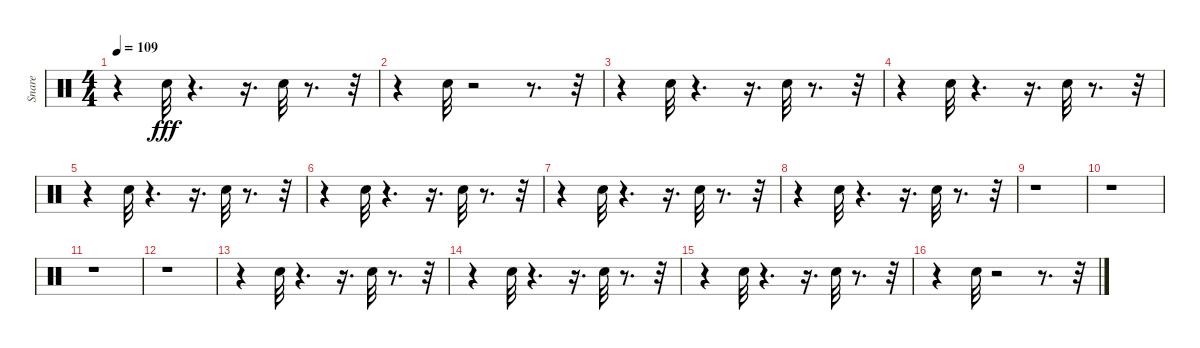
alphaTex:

\track ("Snare" "Snare") {instrument percussion}
\staff {score}
\articulation defaults
\ts (4 4)
\tempo 109
\clef neutral
\ks c
r.4{dy fff} "Snare (hit) 2".32 r.4{d} r.16{d} "Snare (hit) 2".32 r.8{d} r.32 |
r.4 "Snare (hit) 2".32 r.2 r.8{d} r.32 |
r.4 "Snare (hit) 2".32 r.4{d} r.16{d} "Snare (hit) 2".32 r.8{d} r.32 |
r.4 "Snare (hit) 2".32 r.4{d} r.16{d} "Snare (hit) 2".32 r.8{d} r.32 |
r.4 "Snare (hit) 2".32 r.4{d} r.16{d} "Snare (hit) 2".32 r.8{d} r.32 |
r.4 "Snare (hit) 2".32 r.4{d} r.16{d} "Snare (hit) 2".32 r.8{d} r.32 |
r.4 "Snare (hit) 2".32 r.4{d} r.16{d} "Snare (hit) 2".32 r.8{d} r.32 |
r.4 "Snare (hit) 2".32 r.4{d} r.16{d} "Snare (hit) 2".32 r.8{d} r.32 |
r.1 |
r.1 |
r.1 |
r.1 |
r.4 "Snare (hit) 2".32 r.4{d} r.16{d} "Snare (hit) 2".32 r.8{d} r.32 |
r.4 "Snare (hit) 2".32 r.4{d} r.16{d} "Snare (hit) 2".32 r.8{d} r.32 |
r.4 "Snare (hit) 2".32 r.4{d} r.16{d} "Snare (hit) 2".32 r.8{d} r.32 |
r.4 "Snare (hit) 2".32 r.2 r.8{d} r.32
